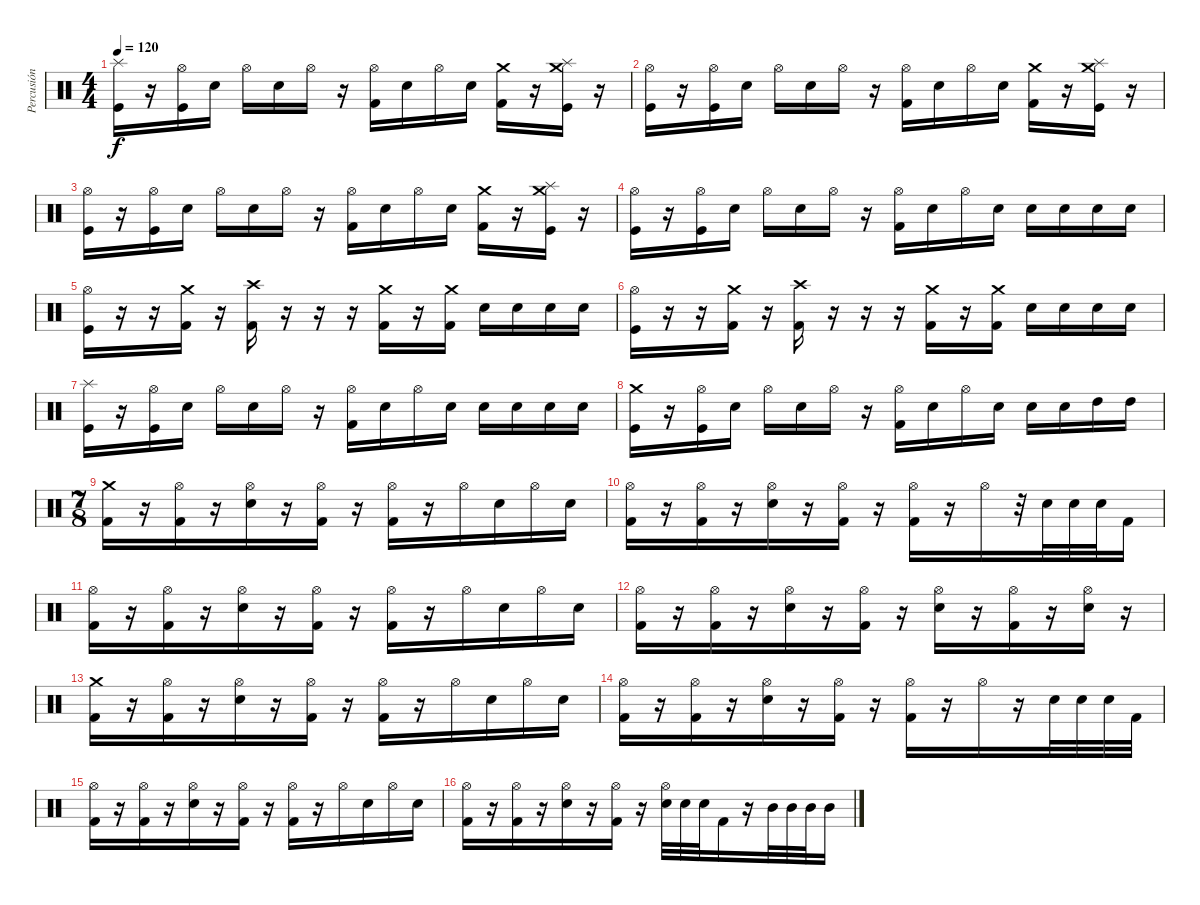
\track ("Percusión" "Percusión") {instrument percussion}
\staff {score}
\articulation defaults
\ts (4 4)
\tempo 120
\clef neutral
\ks c
("Splash (hit)" "Kick (hit)").16{dy f} r.16 ("Hi-Hat (open)" "Kick (hit)").16 "Electric Snare (hit)".16 "Hi-Hat (open)".16 "Electric Snare (hit)".16 "Hi-Hat (open)".16 r.16 ("Hi-Hat (open)" "Kick (hit) 2").16 "Electric Snare (hit)".16 "Hi-Hat (open)".16 "Electric Snare (hit)".16 ("Crash medium (hit)" "Kick (hit) 2").16 r.16 ("Crash medium (hit)" "Splash (hit)" "Kick (hit)").16 r.16 |
("Hi-Hat (open)" "Kick (hit)").16 r.16 ("Hi-Hat (open)" "Kick (hit)").16 "Electric Snare (hit)".16 "Hi-Hat (open)".16 "Electric Snare (hit)".16 "Hi-Hat (open)".16 r.16 ("Hi-Hat (open)" "Kick (hit) 2").16 "Electric Snare (hit)".16 "Hi-Hat (open)".16 "Electric Snare (hit)".16 ("Crash medium (hit)" "Kick (hit) 2").16 r.16 ("Crash medium (hit)" "Splash (hit)" "Kick (hit)").16 r.16 |
("Hi-Hat (open)" "Kick (hit)").16 r.16 ("Hi-Hat (open)" "Kick (hit)").16 "Electric Snare (hit)".16 "Hi-Hat (open)".16 "Electric Snare (hit)".16 "Hi-Hat (open)".16 r.16 ("Hi-Hat (open)" "Kick (hit) 2").16 "Electric Snare (hit)".16 "Hi-Hat (open)".16 "Electric Snare (hit)".16 ("Crash medium (hit)" "Kick (hit) 2").16 r.16 ("Crash medium (hit)" "Splash (hit)" "Kick (hit)").16 r.16 |
("Hi-Hat (open)" "Kick (hit)").16 r.16 ("Hi-Hat (open)" "Kick (hit)").16 "Electric Snare (hit)".16 "Hi-Hat (open)".16 "Electric Snare (hit)".16 "Hi-Hat (open)".16 r.16 ("Hi-Hat (open)" "Kick (hit) 2").16 "Electric Snare (hit)".16 "Hi-Hat (open)".16 "Electric Snare (hit)".16 "Electric Snare (hit)".16 "Electric Snare (hit)".16 "Electric Snare (hit)".16 "Electric Snare (hit)".16 |
("Hi-Hat (open)" "Kick (hit)").16 r.16 r.16 ("Crash medium (hit)" "Kick (hit) 2").16 r.16 ("Crash high (hit)" "Kick (hit) 2").16 r.16 r.16 r.16 ("Crash medium (hit)" "Kick (hit) 2").16 r.16 ("Crash medium (hit)" "Kick (hit) 2").16 "Electric Snare (hit)".16 "Electric Snare (hit)".16 "Electric Snare (hit)".16 "Electric Snare (hit)".16 |
("Hi-Hat (open)" "Kick (hit)").16 r.16 r.16 ("Crash medium (hit)" "Kick (hit) 2").16 r.16 ("Crash high (hit)" "Kick (hit) 2").16 r.16 r.16 r.16 ("Crash medium (hit)" "Kick (hit) 2").16 r.16 ("Crash medium (hit)" "Kick (hit) 2").16 "Electric Snare (hit)".16 "Electric Snare (hit)".16 "Electric Snare (hit)".16 "Electric Snare (hit)".16 |
("Splash (hit)" "Kick (hit)").16 r.16 ("Hi-Hat (open)" "Kick (hit)").16 "Electric Snare (hit)".16 "Hi-Hat (open)".16 "Electric Snare (hit)".16 "Hi-Hat (open)".16 r.16 ("Hi-Hat (open)" "Kick (hit) 2").16 "Electric Snare (hit)".16 "Hi-Hat (open)".16 "Electric Snare (hit)".16 "Electric Snare (hit)".16 "Electric Snare (hit)".16 "Electric Snare (hit)".16 "Electric Snare (hit)".16 |
("Crash medium (hit)" "Kick (hit)").16 r.16 ("Hi-Hat (open)" "Kick (hit)").16 "Electric Snare (hit)".16 "Hi-Hat (open)".16 "Electric Snare (hit)".16 "Hi-Hat (open)".16 r.16 ("Hi-Hat (open)" "Kick (hit) 2").16 "Electric Snare (hit)".16 "Hi-Hat (open)".16 "Electric Snare (hit)".16 "Electric Snare (hit)".16 "Electric Snare (hit)".16 "High Tom (hit)".16 "High Tom (hit)".16 |
\ts (7 8)
("Crash medium (hit)" "Kick (hit) 2").16 r.16 ("Hi-Hat (open)" "Kick (hit) 2").16 r.16 ("Hi-Hat (open)" "Electric Snare (hit)").16 r.16 ("Hi-Hat (open)" "Kick (hit) 2").16 r.16 ("Hi-Hat (open)" "Kick (hit) 2").16 r.16 "Hi-Hat (open)".16 "Electric Snare (hit)".16 "Hi-Hat (open)".16 "Electric Snare (hit)".16 |
("Hi-Hat (open)" "Kick (hit) 2").16 r.16 ("Hi-Hat (open)" "Kick (hit) 2").16 r.16 ("Hi-Hat (open)" "Electric Snare (hit)").16 r.16 ("Hi-Hat (open)" "Kick (hit) 2").16 r.16 ("Hi-Hat (open)" "Kick (hit) 2").16 r.16 "Hi-Hat (open)".16 r.32 "Electric Snare (hit)".32 "Electric Snare (hit)".32 "Electric Snare (hit)".32 "Kick (hit) 2".16 |
("Hi-Hat (open)" "Kick (hit) 2").16 r.16 ("Hi-Hat (open)" "Kick (hit) 2").16 r.16 ("Hi-Hat (open)" "Electric Snare (hit)").16 r.16 ("Hi-Hat (open)" "Kick (hit) 2").16 r.16 ("Hi-Hat (open)" "Kick (hit) 2").16 r.16 "Hi-Hat (open)".16 "Electric Snare (hit)".16 "Hi-Hat (open)".16 "Electric Snare (hit)".16 |
("Hi-Hat (open)" "Kick (hit) 2").16 r.16 ("Hi-Hat (open)" "Kick (hit) 2").16 r.16 ("Hi-Hat (open)" "Electric Snare (hit)").16 r.16 ("Hi-Hat (open)" "Kick (hit) 2").16 r.16 ("Hi-Hat (open)" "Electric Snare (hit)").16 r.16 ("Hi-Hat (open)" "Kick (hit) 2").16 r.16 ("Hi-Hat (open)" "Electric Snare (hit)").16 r.16 |
("Crash medium (hit)" "Kick (hit) 2").16 r.16 ("Hi-Hat (open)" "Kick (hit) 2").16 r.16 ("Hi-Hat (open)" "Electric Snare (hit)").16 r.16 ("Hi-Hat (open)" "Kick (hit) 2").16 r.16 ("Hi-Hat (open)" "Kick (hit) 2").16 r.16 "Hi-Hat (open)".16 "Electric Snare (hit)".16 "Hi-Hat (open)".16 "Electric Snare (hit)".16 |
("Hi-Hat (open)" "Kick (hit) 2").16 r.16 ("Hi-Hat (open)" "Kick (hit) 2").16 r.16 ("Hi-Hat (open)" "Electric Snare (hit)").16 r.16 ("Hi-Hat (open)" "Kick (hit) 2").16 r.16 ("Hi-Hat (open)" "Kick (hit) 2").16 r.16 "Hi-Hat (open)".16 r.16 "Electric Snare (hit)".32 "Electric Snare (hit)".32 "Electric Snare (hit)".32 "Kick (hit) 2".32 |
("Hi-Hat (open)" "Kick (hit) 2").16 r.16 ("Hi-Hat (open)" "Kick (hit) 2").16 r.16 ("Hi-Hat (open)" "Electric Snare (hit)").16 r.16 ("Hi-Hat (open)" "Kick (hit) 2").16 r.16 ("Hi-Hat (open)" "Kick (hit) 2").16 r.16 "Hi-Hat (open)".16 "Electric Snare (hit)".16 "Hi-Hat (open)".16 "Electric Snare (hit)".16 |
("Hi-Hat (open)" "Kick (hit) 2").16 r.16 ("Hi-Hat (open)" "Kick (hit) 2").16 r.16 ("Hi-Hat (open)" "Electric Snare (hit)").16 r.16 ("Hi-Hat (open)" "Kick (hit) 2").16 r.16 ("Hi-Hat (open)" "Electric Snare (hit)").32 "Electric Snare (hit)".32 "Electric Snare (hit)".32 "Kick (hit) 2".16 r.16 "Mid Tom (hit)".32 "Mid Tom (hit)".32 "Mid Tom (hit)".32 "Mid Tom (hit)".16
